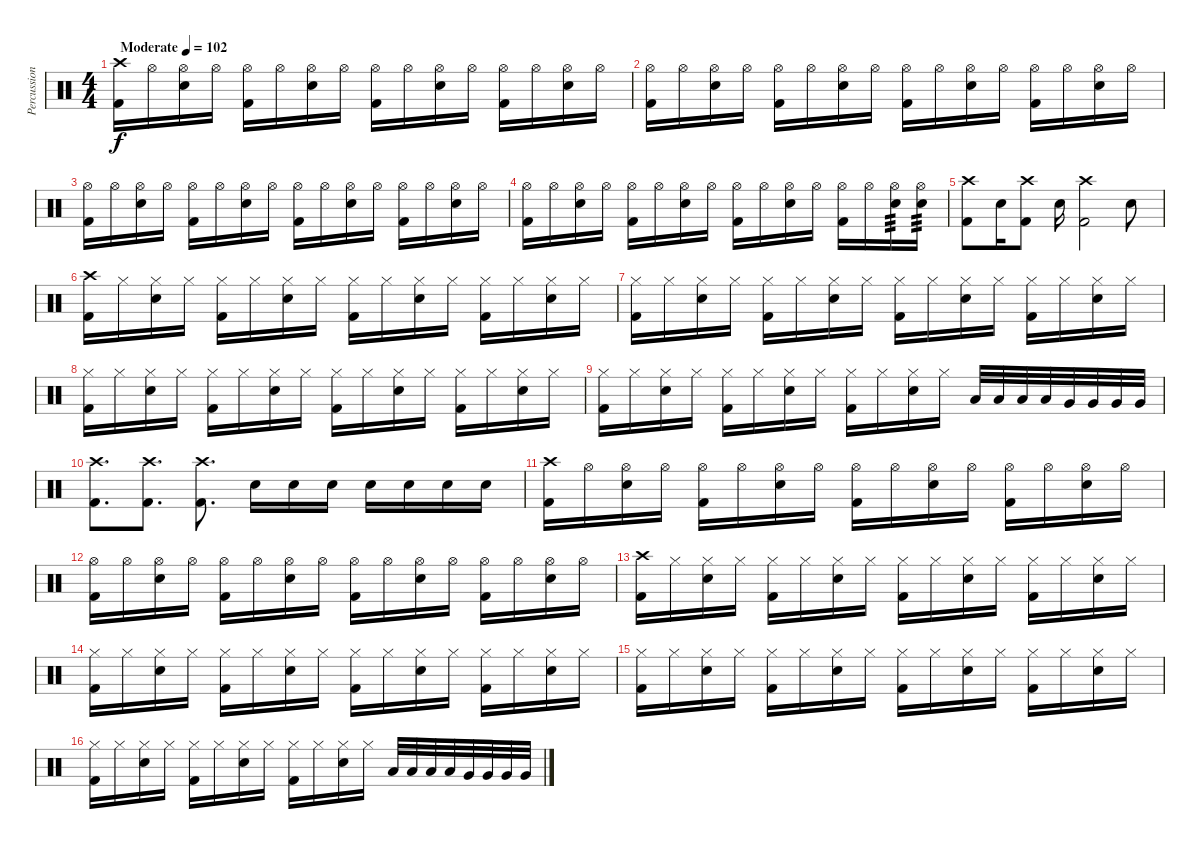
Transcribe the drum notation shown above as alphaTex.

\track ("Percussion" "Percussion") {instrument percussion}
\staff {score}
\articulation defaults
\ts (4 4)
\tempo (102 "Moderate")
\clef neutral
\ks c
("Crash high (hit)" "Kick (hit) 2").16{dy f} "Hi-Hat (open)".16 ("Hi-Hat (open)" "Snare (hit) 2").16 "Hi-Hat (open)".16 ("Hi-Hat (open)" "Kick (hit) 2").16 "Hi-Hat (open)".16 ("Hi-Hat (open)" "Snare (hit) 2").16 "Hi-Hat (open)".16 ("Hi-Hat (open)" "Kick (hit) 2").16 "Hi-Hat (open)".16 ("Hi-Hat (open)" "Snare (hit) 2").16 "Hi-Hat (open)".16 ("Hi-Hat (open)" "Kick (hit) 2").16 "Hi-Hat (open)".16 ("Hi-Hat (open)" "Snare (hit) 2").16 "Hi-Hat (open)".16 |
("Hi-Hat (open)" "Kick (hit) 2").16 "Hi-Hat (open)".16 ("Hi-Hat (open)" "Snare (hit) 2").16 "Hi-Hat (open)".16 ("Hi-Hat (open)" "Kick (hit) 2").16 "Hi-Hat (open)".16 ("Hi-Hat (open)" "Snare (hit) 2").16 "Hi-Hat (open)".16 ("Hi-Hat (open)" "Kick (hit) 2").16 "Hi-Hat (open)".16 ("Hi-Hat (open)" "Snare (hit) 2").16 "Hi-Hat (open)".16 ("Hi-Hat (open)" "Kick (hit) 2").16 "Hi-Hat (open)".16 ("Hi-Hat (open)" "Snare (hit) 2").16 "Hi-Hat (open)".16 |
("Hi-Hat (open)" "Kick (hit) 2").16 "Hi-Hat (open)".16 ("Hi-Hat (open)" "Snare (hit) 2").16 "Hi-Hat (open)".16 ("Hi-Hat (open)" "Kick (hit) 2").16 "Hi-Hat (open)".16 ("Hi-Hat (open)" "Snare (hit) 2").16 "Hi-Hat (open)".16 ("Hi-Hat (open)" "Kick (hit) 2").16 "Hi-Hat (open)".16 ("Hi-Hat (open)" "Snare (hit) 2").16 "Hi-Hat (open)".16 ("Hi-Hat (open)" "Kick (hit) 2").16 "Hi-Hat (open)".16 ("Hi-Hat (open)" "Snare (hit) 2").16 "Hi-Hat (open)".16 |
("Hi-Hat (open)" "Kick (hit) 2").16 "Hi-Hat (open)".16 ("Hi-Hat (open)" "Snare (hit) 2").16 "Hi-Hat (open)".16 ("Hi-Hat (open)" "Kick (hit) 2").16 "Hi-Hat (open)".16 ("Hi-Hat (open)" "Snare (hit) 2").16 "Hi-Hat (open)".16 ("Hi-Hat (open)" "Kick (hit) 2").16 "Hi-Hat (open)".16 ("Hi-Hat (open)" "Snare (hit) 2").16 "Hi-Hat (open)".16 ("Hi-Hat (open)" "Kick (hit) 2").16 "Hi-Hat (open)".16 ("Hi-Hat (open)" "Snare (hit) 2").16{tp 3} ("Hi-Hat (open)" "Snare (hit) 2").16{tp 3} |
("Crash high (hit)" "Kick (hit) 2").8 "Snare (hit) 2".16 ("Crash high (hit)" "Kick (hit) 2").8 "Snare (hit) 2".16 ("Crash high (hit)" "Kick (hit) 2").2 "Snare (hit) 2".8 |
("Crash high (hit)" "Kick (hit) 2").16 "Hi-Hat (closed)".16 ("Hi-Hat (closed)" "Snare (hit) 2").16 "Hi-Hat (closed)".16 ("Hi-Hat (closed)" "Kick (hit) 2").16 "Hi-Hat (closed)".16 ("Hi-Hat (closed)" "Snare (hit) 2").16 "Hi-Hat (closed)".16 ("Hi-Hat (closed)" "Kick (hit) 2").16 "Hi-Hat (closed)".16 ("Hi-Hat (closed)" "Snare (hit) 2").16 "Hi-Hat (closed)".16 ("Hi-Hat (closed)" "Kick (hit) 2").16 "Hi-Hat (closed)".16 ("Hi-Hat (closed)" "Snare (hit) 2").16 "Hi-Hat (closed)".16 |
("Hi-Hat (closed)" "Kick (hit) 2").16 "Hi-Hat (closed)".16 ("Hi-Hat (closed)" "Snare (hit) 2").16 "Hi-Hat (closed)".16 ("Hi-Hat (closed)" "Kick (hit) 2").16 "Hi-Hat (closed)".16 ("Hi-Hat (closed)" "Snare (hit) 2").16 "Hi-Hat (closed)".16 ("Hi-Hat (closed)" "Kick (hit) 2").16 "Hi-Hat (closed)".16 ("Hi-Hat (closed)" "Snare (hit) 2").16 "Hi-Hat (closed)".16 ("Hi-Hat (closed)" "Kick (hit) 2").16 "Hi-Hat (closed)".16 ("Hi-Hat (closed)" "Snare (hit) 2").16 "Hi-Hat (closed)".16 |
("Hi-Hat (closed)" "Kick (hit) 2").16 "Hi-Hat (closed)".16 ("Hi-Hat (closed)" "Snare (hit) 2").16 "Hi-Hat (closed)".16 ("Hi-Hat (closed)" "Kick (hit) 2").16 "Hi-Hat (closed)".16 ("Hi-Hat (closed)" "Snare (hit) 2").16 "Hi-Hat (closed)".16 ("Hi-Hat (closed)" "Kick (hit) 2").16 "Hi-Hat (closed)".16 ("Hi-Hat (closed)" "Snare (hit) 2").16 "Hi-Hat (closed)".16 ("Hi-Hat (closed)" "Kick (hit) 2").16 "Hi-Hat (closed)".16 ("Hi-Hat (closed)" "Snare (hit) 2").16 "Hi-Hat (closed)".16 |
("Hi-Hat (closed)" "Kick (hit) 2").16 "Hi-Hat (closed)".16 ("Hi-Hat (closed)" "Snare (hit) 2").16 "Hi-Hat (closed)".16 ("Hi-Hat (closed)" "Kick (hit) 2").16 "Hi-Hat (closed)".16 ("Hi-Hat (closed)" "Snare (hit) 2").16 "Hi-Hat (closed)".16 ("Hi-Hat (closed)" "Kick (hit) 2").16 "Hi-Hat (closed)".16 ("Hi-Hat (closed)" "Snare (hit) 2").16 "Hi-Hat (closed)".16 "Low Tom (hit)".32 "Low Tom (hit)".32 "Low Tom (hit)".32 "Low Tom (hit)".32 "Very Low Tom (hit)".32 "Very Low Tom (hit)".32 "Very Low Tom (hit)".32 "Very Low Tom (hit)".32 |
("Crash high (hit)" "Kick (hit) 2").8{d} ("Crash high (hit)" "Kick (hit) 2").8{d} ("Crash high (hit)" "Kick (hit) 2").8{d} "Snare (hit) 2".16 "Snare (hit) 2".16 "Snare (hit) 2".16 "Snare (hit) 2".16 "Snare (hit) 2".16 "Snare (hit) 2".16 "Snare (hit) 2".16 |
("Crash high (hit)" "Kick (hit) 2").16 "Hi-Hat (open)".16 ("Hi-Hat (open)" "Snare (hit) 2").16 "Hi-Hat (open)".16 ("Hi-Hat (open)" "Kick (hit) 2").16 "Hi-Hat (open)".16 ("Hi-Hat (open)" "Snare (hit) 2").16 "Hi-Hat (open)".16 ("Hi-Hat (open)" "Kick (hit) 2").16 "Hi-Hat (open)".16 ("Hi-Hat (open)" "Snare (hit) 2").16 "Hi-Hat (open)".16 ("Hi-Hat (open)" "Kick (hit) 2").16 "Hi-Hat (open)".16 ("Hi-Hat (open)" "Snare (hit) 2").16 "Hi-Hat (open)".16 |
("Hi-Hat (open)" "Kick (hit) 2").16 "Hi-Hat (open)".16 ("Hi-Hat (open)" "Snare (hit) 2").16 "Hi-Hat (open)".16 ("Hi-Hat (open)" "Kick (hit) 2").16 "Hi-Hat (open)".16 ("Hi-Hat (open)" "Snare (hit) 2").16 "Hi-Hat (open)".16 ("Hi-Hat (open)" "Kick (hit) 2").16 "Hi-Hat (open)".16 ("Hi-Hat (open)" "Snare (hit) 2").16 "Hi-Hat (open)".16 ("Hi-Hat (open)" "Kick (hit) 2").16 "Hi-Hat (open)".16 ("Hi-Hat (open)" "Snare (hit) 2").16 "Hi-Hat (open)".16 |
("Crash high (hit)" "Kick (hit) 2").16 "Hi-Hat (closed)".16 ("Hi-Hat (closed)" "Snare (hit) 2").16 "Hi-Hat (closed)".16 ("Hi-Hat (closed)" "Kick (hit) 2").16 "Hi-Hat (closed)".16 ("Hi-Hat (closed)" "Snare (hit) 2").16 "Hi-Hat (closed)".16 ("Hi-Hat (closed)" "Kick (hit) 2").16 "Hi-Hat (closed)".16 ("Hi-Hat (closed)" "Snare (hit) 2").16 "Hi-Hat (closed)".16 ("Hi-Hat (closed)" "Kick (hit) 2").16 "Hi-Hat (closed)".16 ("Hi-Hat (closed)" "Snare (hit) 2").16 "Hi-Hat (closed)".16 |
("Hi-Hat (closed)" "Kick (hit) 2").16 "Hi-Hat (closed)".16 ("Hi-Hat (closed)" "Snare (hit) 2").16 "Hi-Hat (closed)".16 ("Hi-Hat (closed)" "Kick (hit) 2").16 "Hi-Hat (closed)".16 ("Hi-Hat (closed)" "Snare (hit) 2").16 "Hi-Hat (closed)".16 ("Hi-Hat (closed)" "Kick (hit) 2").16 "Hi-Hat (closed)".16 ("Hi-Hat (closed)" "Snare (hit) 2").16 "Hi-Hat (closed)".16 ("Hi-Hat (closed)" "Kick (hit) 2").16 "Hi-Hat (closed)".16 ("Hi-Hat (closed)" "Snare (hit) 2").16 "Hi-Hat (closed)".16 |
("Hi-Hat (closed)" "Kick (hit) 2").16 "Hi-Hat (closed)".16 ("Hi-Hat (closed)" "Snare (hit) 2").16 "Hi-Hat (closed)".16 ("Hi-Hat (closed)" "Kick (hit) 2").16 "Hi-Hat (closed)".16 ("Hi-Hat (closed)" "Snare (hit) 2").16 "Hi-Hat (closed)".16 ("Hi-Hat (closed)" "Kick (hit) 2").16 "Hi-Hat (closed)".16 ("Hi-Hat (closed)" "Snare (hit) 2").16 "Hi-Hat (closed)".16 ("Hi-Hat (closed)" "Kick (hit) 2").16 "Hi-Hat (closed)".16 ("Hi-Hat (closed)" "Snare (hit) 2").16 "Hi-Hat (closed)".16 |
("Hi-Hat (closed)" "Kick (hit) 2").16 "Hi-Hat (closed)".16 ("Hi-Hat (closed)" "Snare (hit) 2").16 "Hi-Hat (closed)".16 ("Hi-Hat (closed)" "Kick (hit) 2").16 "Hi-Hat (closed)".16 ("Hi-Hat (closed)" "Snare (hit) 2").16 "Hi-Hat (closed)".16 ("Hi-Hat (closed)" "Kick (hit) 2").16 "Hi-Hat (closed)".16 ("Hi-Hat (closed)" "Snare (hit) 2").16 "Hi-Hat (closed)".16 "Low Tom (hit)".32 "Low Tom (hit)".32 "Low Tom (hit)".32 "Low Tom (hit)".32 "Very Low Tom (hit)".32 "Very Low Tom (hit)".32 "Very Low Tom (hit)".32 "Very Low Tom (hit)".32
